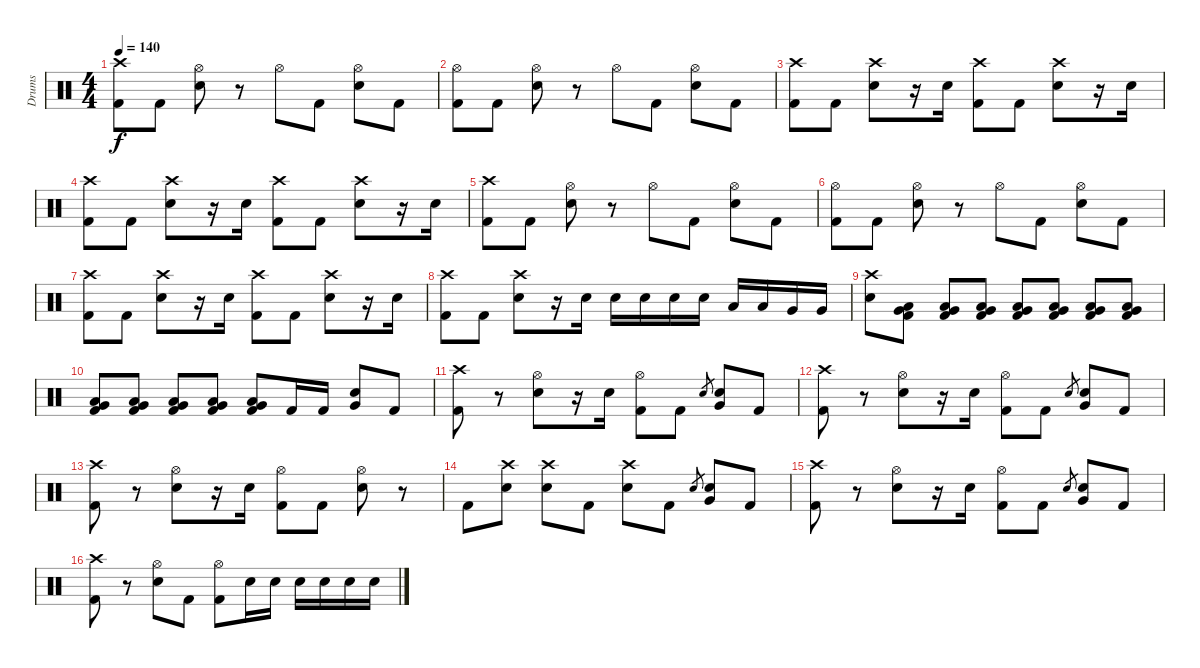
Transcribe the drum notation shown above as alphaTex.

\track ("Drums" "Drums") {instrument percussion}
\staff {score}
\articulation defaults
\ts (4 4)
\tempo 140
\clef neutral
\ks c
("Crash high (hit)" "Kick (hit) 2").8{dy f} "Kick (hit) 2".8 ("Hi-Hat (open)" "Electric Snare (hit)").8 r.8 "Hi-Hat (open)".8 "Kick (hit) 2".8 ("Hi-Hat (open)" "Electric Snare (hit)").8 "Kick (hit) 2".8 |
("Hi-Hat (open)" "Kick (hit) 2").8 "Kick (hit) 2".8 ("Hi-Hat (open)" "Electric Snare (hit)").8 r.8 "Hi-Hat (open)".8 "Kick (hit) 2".8 ("Hi-Hat (open)" "Electric Snare (hit)").8 "Kick (hit) 2".8 |
("Crash high (hit)" "Kick (hit) 2").8 "Kick (hit) 2".8 ("Crash high (hit)" "Electric Snare (hit)").8 r.16 "Electric Snare (hit)".16 ("Crash high (hit)" "Kick (hit) 2").8 "Kick (hit) 2".8 ("Crash high (hit)" "Electric Snare (hit)").8 r.16 "Electric Snare (hit)".16 |
("Crash high (hit)" "Kick (hit) 2").8 "Kick (hit) 2".8 ("Crash high (hit)" "Electric Snare (hit)").8 r.16 "Electric Snare (hit)".16 ("Crash high (hit)" "Kick (hit) 2").8 "Kick (hit) 2".8 ("Crash high (hit)" "Electric Snare (hit)").8 r.16 "Electric Snare (hit)".16 |
("Crash high (hit)" "Kick (hit) 2").8 "Kick (hit) 2".8 ("Hi-Hat (open)" "Electric Snare (hit)").8 r.8 "Hi-Hat (open)".8 "Kick (hit) 2".8 ("Hi-Hat (open)" "Electric Snare (hit)").8 "Kick (hit) 2".8 |
("Hi-Hat (open)" "Kick (hit) 2").8 "Kick (hit) 2".8 ("Hi-Hat (open)" "Electric Snare (hit)").8 r.8 "Hi-Hat (open)".8 "Kick (hit) 2".8 ("Hi-Hat (open)" "Electric Snare (hit)").8 "Kick (hit) 2".8 |
("Crash high (hit)" "Kick (hit) 2").8 "Kick (hit) 2".8 ("Crash high (hit)" "Electric Snare (hit)").8 r.16 "Electric Snare (hit)".16 ("Crash high (hit)" "Kick (hit) 2").8 "Kick (hit) 2".8 ("Crash high (hit)" "Electric Snare (hit)").8 r.16 "Electric Snare (hit)".16 |
("Crash high (hit)" "Kick (hit) 2").8 "Kick (hit) 2".8 ("Crash high (hit)" "Electric Snare (hit)").8 r.16 "Electric Snare (hit)".16 "Electric Snare (hit)".16 "Electric Snare (hit)".16 "Electric Snare (hit)".16 "Electric Snare (hit)".16 "Low Tom (hit)".16 "Low Tom (hit)".16 "Very Low Tom (hit)".16 "Very Low Tom (hit)".16 |
("Crash high (hit)" "Electric Snare (hit)").8 ("Very Low Tom (hit)" "Low Tom (hit)" "Kick (hit) 2").8 ("Very Low Tom (hit)" "Low Tom (hit)" "Kick (hit) 2").8 ("Very Low Tom (hit)" "Low Tom (hit)" "Kick (hit) 2").8 ("Very Low Tom (hit)" "Low Tom (hit)" "Kick (hit) 2").8 ("Very Low Tom (hit)" "Low Tom (hit)" "Kick (hit) 2").8 ("Very Low Tom (hit)" "Low Tom (hit)" "Kick (hit) 2").8 ("Very Low Tom (hit)" "Low Tom (hit)" "Kick (hit) 2").8 |
("Very Low Tom (hit)" "Low Tom (hit)" "Kick (hit) 2").8 ("Very Low Tom (hit)" "Low Tom (hit)" "Kick (hit) 2").8 ("Very Low Tom (hit)" "Low Tom (hit)" "Kick (hit) 2").8 ("Very Low Tom (hit)" "Low Tom (hit)" "Kick (hit) 2").8 ("Very Low Tom (hit)" "Low Tom (hit)" "Kick (hit) 2").8 "Kick (hit) 2".16 "Kick (hit) 2".16 ("Very Low Tom (hit)" "Electric Snare (hit)").8 "Kick (hit) 2".8 |
("Crash high (hit)" "Kick (hit) 2").8 r.8 ("Hi-Hat (open)" "Electric Snare (hit)").8 r.16 "Electric Snare (hit)".16 ("Hi-Hat (open)" "Kick (hit) 2").8 "Kick (hit) 2".8 "Electric Snare (hit)".8{gr} ("Very Low Tom (hit)" "Electric Snare (hit)").8 "Kick (hit) 2".8 |
("Crash high (hit)" "Kick (hit) 2").8 r.8 ("Hi-Hat (open)" "Electric Snare (hit)").8 r.16 "Electric Snare (hit)".16 ("Hi-Hat (open)" "Kick (hit) 2").8 "Kick (hit) 2".8 "Electric Snare (hit)".8{gr} ("Very Low Tom (hit)" "Electric Snare (hit)").8 "Kick (hit) 2".8 |
("Crash high (hit)" "Kick (hit) 2").8 r.8 ("Hi-Hat (open)" "Electric Snare (hit)").8 r.16 "Electric Snare (hit)".16 ("Hi-Hat (open)" "Kick (hit) 2").8 "Kick (hit) 2".8 ("Hi-Hat (open)" "Electric Snare (hit)").8 r.8 |
"Kick (hit) 2".8 ("Crash high (hit)" "Electric Snare (hit)").8 ("Crash high (hit)" "Electric Snare (hit)").8 "Kick (hit) 2".8 ("Crash high (hit)" "Electric Snare (hit)").8 "Kick (hit) 2".8 "Electric Snare (hit)".8{gr} ("Very Low Tom (hit)" "Electric Snare (hit)").8 "Kick (hit) 2".8 |
("Crash high (hit)" "Kick (hit) 2").8 r.8 ("Hi-Hat (open)" "Electric Snare (hit)").8 r.16 "Electric Snare (hit)".16 ("Hi-Hat (open)" "Kick (hit) 2").8 "Kick (hit) 2".8 "Electric Snare (hit)".8{gr} ("Very Low Tom (hit)" "Electric Snare (hit)").8 "Kick (hit) 2".8 |
("Crash high (hit)" "Kick (hit) 2").8 r.8 ("Hi-Hat (open)" "Electric Snare (hit)").8 "Kick (hit) 2".8 ("Hi-Hat (open)" "Kick (hit) 2").8 "Electric Snare (hit)".16 "Electric Snare (hit)".16 "Electric Snare (hit)".16 "Electric Snare (hit)".16 "Electric Snare (hit)".16 "Electric Snare (hit)".16
